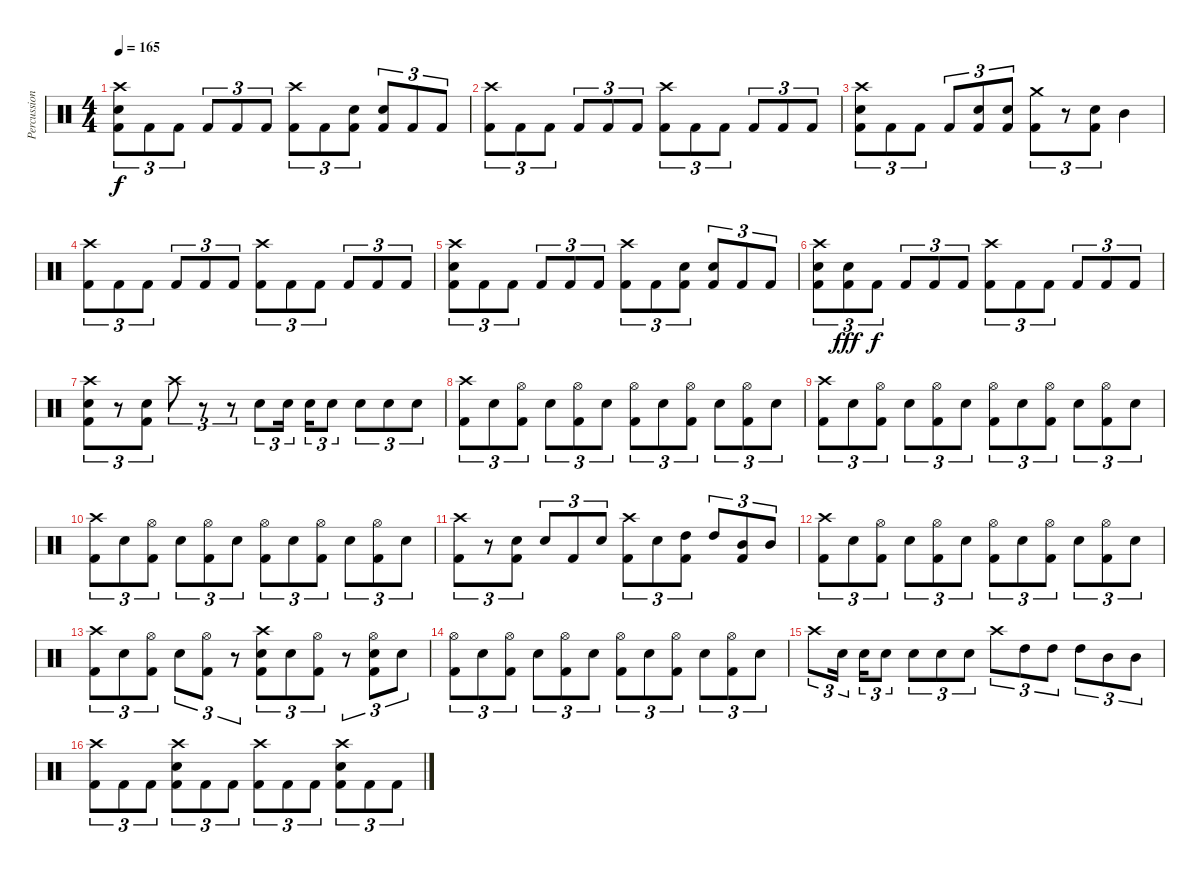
\track ("Percussion" "Percussion") {instrument percussion}
\staff {score}
\articulation defaults
\ts (4 4)
\tempo 165
\clef neutral
\ks c
("Crash high (hit)" "Electric Snare (hit)" "Kick (hit) 2").8{tu (3 2) dy f} "Kick (hit) 2".8{tu (3 2)} "Kick (hit) 2".8{tu (3 2)} "Kick (hit) 2".8{tu (3 2)} "Kick (hit) 2".8{tu (3 2)} "Kick (hit) 2".8{tu (3 2)} ("Crash high (hit)" "Kick (hit) 2").8{tu (3 2)} "Kick (hit) 2".8{tu (3 2)} ("Electric Snare (hit)" "Kick (hit) 2").8{tu (3 2)} ("Electric Snare (hit)" "Kick (hit) 2").8{tu (3 2)} "Kick (hit) 2".8{tu (3 2)} "Kick (hit) 2".8{tu (3 2)} |
("Crash high (hit)" "Kick (hit) 2").8{tu (3 2)} "Kick (hit) 2".8{tu (3 2)} "Kick (hit) 2".8{tu (3 2)} "Kick (hit) 2".8{tu (3 2)} "Kick (hit) 2".8{tu (3 2)} "Kick (hit) 2".8{tu (3 2)} ("Crash high (hit)" "Kick (hit) 2").8{tu (3 2)} "Kick (hit) 2".8{tu (3 2)} "Kick (hit) 2".8{tu (3 2)} "Kick (hit) 2".8{tu (3 2)} "Kick (hit) 2".8{tu (3 2)} "Kick (hit) 2".8{tu (3 2)} |
("Crash high (hit)" "Electric Snare (hit)" "Kick (hit) 2").8{tu (3 2)} "Kick (hit) 2".8{tu (3 2)} "Kick (hit) 2".8{tu (3 2)} "Kick (hit) 2".8{tu (3 2)} ("Electric Snare (hit)" "Kick (hit) 2").8{tu (3 2)} ("Electric Snare (hit)" "Kick (hit) 2").8{tu (3 2)} ("Crash medium (hit)" "Kick (hit) 2").8{tu (3 2)} r.8{tu (3 2)} ("Electric Snare (hit)" "Kick (hit) 2").8{tu (3 2)} "Mid Tom (hit)".4 |
("Crash high (hit)" "Kick (hit) 2").8{tu (3 2)} "Kick (hit) 2".8{tu (3 2)} "Kick (hit) 2".8{tu (3 2)} "Kick (hit) 2".8{tu (3 2)} "Kick (hit) 2".8{tu (3 2)} "Kick (hit) 2".8{tu (3 2)} ("Crash high (hit)" "Kick (hit) 2").8{tu (3 2)} "Kick (hit) 2".8{tu (3 2)} "Kick (hit) 2".8{tu (3 2)} "Kick (hit) 2".8{tu (3 2)} "Kick (hit) 2".8{tu (3 2)} "Kick (hit) 2".8{tu (3 2)} |
("Crash high (hit)" "Electric Snare (hit)" "Kick (hit) 2").8{tu (3 2)} "Kick (hit) 2".8{tu (3 2)} "Kick (hit) 2".8{tu (3 2)} "Kick (hit) 2".8{tu (3 2)} "Kick (hit) 2".8{tu (3 2)} "Kick (hit) 2".8{tu (3 2)} ("Crash high (hit)" "Kick (hit) 2").8{tu (3 2)} "Kick (hit) 2".8{tu (3 2)} ("Electric Snare (hit)" "Kick (hit) 2").8{tu (3 2)} ("Electric Snare (hit)" "Kick (hit) 2").8{tu (3 2)} "Kick (hit) 2".8{tu (3 2)} "Kick (hit) 2".8{tu (3 2)} |
("Crash high (hit)" "Electric Snare (hit)" "Kick (hit) 2").8{tu (3 2)} ("Electric Snare (hit)" "Kick (hit) 2").8{tu (3 2) dy fff} "Kick (hit) 2".8{tu (3 2) dy f} "Kick (hit) 2".8{tu (3 2)} "Kick (hit) 2".8{tu (3 2)} "Kick (hit) 2".8{tu (3 2)} ("Crash high (hit)" "Kick (hit) 2").8{tu (3 2)} "Kick (hit) 2".8{tu (3 2)} "Kick (hit) 2".8{tu (3 2)} "Kick (hit) 2".8{tu (3 2)} "Kick (hit) 2".8{tu (3 2)} "Kick (hit) 2".8{tu (3 2)} |
("Crash high (hit)" "Electric Snare (hit)" "Kick (hit) 2").8{tu (3 2)} r.8{tu (3 2)} ("Electric Snare (hit)" "Kick (hit) 2").8{tu (3 2)} "Crash high (hit)".8{tu (3 2)} r.8{tu (3 2)} r.8{tu (3 2)} "Electric Snare (hit)".8{tu (3 2)} "Electric Snare (hit)".16{tu (3 2) beam splitsecondary} "Electric Snare (hit)".16{tu (3 2)} "Electric Snare (hit)".8{tu (3 2)} "Electric Snare (hit)".8{tu (3 2)} "Electric Snare (hit)".8{tu (3 2)} "Electric Snare (hit)".8{tu (3 2)} |
("Crash high (hit)" "Kick (hit) 2").8{tu (3 2)} "Electric Snare (hit)".8{tu (3 2)} ("Hi-Hat (open)" "Kick (hit) 2").8{tu (3 2)} "Electric Snare (hit)".8{tu (3 2)} ("Hi-Hat (open)" "Kick (hit) 2").8{tu (3 2)} "Electric Snare (hit)".8{tu (3 2)} ("Hi-Hat (open)" "Kick (hit) 2").8{tu (3 2)} "Electric Snare (hit)".8{tu (3 2)} ("Hi-Hat (open)" "Kick (hit) 2").8{tu (3 2)} "Electric Snare (hit)".8{tu (3 2)} ("Hi-Hat (open)" "Kick (hit) 2").8{tu (3 2)} "Electric Snare (hit)".8{tu (3 2)} |
("Crash high (hit)" "Kick (hit) 2").8{tu (3 2)} "Electric Snare (hit)".8{tu (3 2)} ("Hi-Hat (open)" "Kick (hit) 2").8{tu (3 2)} "Electric Snare (hit)".8{tu (3 2)} ("Hi-Hat (open)" "Kick (hit) 2").8{tu (3 2)} "Electric Snare (hit)".8{tu (3 2)} ("Hi-Hat (open)" "Kick (hit) 2").8{tu (3 2)} "Electric Snare (hit)".8{tu (3 2)} ("Hi-Hat (open)" "Kick (hit) 2").8{tu (3 2)} "Electric Snare (hit)".8{tu (3 2)} ("Hi-Hat (open)" "Kick (hit) 2").8{tu (3 2)} "Electric Snare (hit)".8{tu (3 2)} |
("Crash high (hit)" "Kick (hit) 2").8{tu (3 2)} "Electric Snare (hit)".8{tu (3 2)} ("Hi-Hat (open)" "Kick (hit) 2").8{tu (3 2)} "Electric Snare (hit)".8{tu (3 2)} ("Hi-Hat (open)" "Kick (hit) 2").8{tu (3 2)} "Electric Snare (hit)".8{tu (3 2)} ("Hi-Hat (open)" "Kick (hit) 2").8{tu (3 2)} "Electric Snare (hit)".8{tu (3 2)} ("Hi-Hat (open)" "Kick (hit) 2").8{tu (3 2)} "Electric Snare (hit)".8{tu (3 2)} ("Hi-Hat (open)" "Kick (hit) 2").8{tu (3 2)} "Electric Snare (hit)".8{tu (3 2)} |
("Crash high (hit)" "Kick (hit) 2").8{tu (3 2)} r.8{tu (3 2)} ("Electric Snare (hit)" "Kick (hit) 2").8{tu (3 2)} "Electric Snare (hit)".8{tu (3 2)} "Kick (hit) 2".8{tu (3 2)} "Electric Snare (hit)".8{tu (3 2)} ("Crash high (hit)" "Kick (hit) 2").8{tu (3 2)} "Electric Snare (hit)".8{tu (3 2)} ("High Tom (hit)" "Kick (hit) 2").8{tu (3 2)} "High Tom (hit)".8{tu (3 2)} ("Mid Tom (hit)" "Kick (hit) 2").8{tu (3 2)} "Mid Tom (hit)".8{tu (3 2)} |
("Crash high (hit)" "Kick (hit) 2").8{tu (3 2)} "Electric Snare (hit)".8{tu (3 2)} ("Hi-Hat (open)" "Kick (hit) 2").8{tu (3 2)} "Electric Snare (hit)".8{tu (3 2)} ("Hi-Hat (open)" "Kick (hit) 2").8{tu (3 2)} "Electric Snare (hit)".8{tu (3 2)} ("Hi-Hat (open)" "Kick (hit) 2").8{tu (3 2)} "Electric Snare (hit)".8{tu (3 2)} ("Hi-Hat (open)" "Kick (hit) 2").8{tu (3 2)} "Electric Snare (hit)".8{tu (3 2)} ("Hi-Hat (open)" "Kick (hit) 2").8{tu (3 2)} "Electric Snare (hit)".8{tu (3 2)} |
("Crash high (hit)" "Kick (hit) 2").8{tu (3 2)} "Electric Snare (hit)".8{tu (3 2)} ("Hi-Hat (open)" "Kick (hit) 2").8{tu (3 2)} "Electric Snare (hit)".8{tu (3 2)} ("Hi-Hat (open)" "Kick (hit) 2").8{tu (3 2)} r.8{tu (3 2)} ("Crash high (hit)" "Electric Snare (hit)" "Kick (hit) 2").8{tu (3 2)} "Electric Snare (hit)".8{tu (3 2)} ("Hi-Hat (open)" "Kick (hit) 2").8{tu (3 2)} r.8{tu (3 2)} ("Hi-Hat (open)" "Electric Snare (hit)" "Kick (hit) 2").8{tu (3 2)} "Electric Snare (hit)".8{tu (3 2)} |
("Hi-Hat (open)" "Kick (hit) 2").8{tu (3 2)} "Electric Snare (hit)".8{tu (3 2)} ("Hi-Hat (open)" "Kick (hit) 2").8{tu (3 2)} "Electric Snare (hit)".8{tu (3 2)} ("Hi-Hat (open)" "Kick (hit) 2").8{tu (3 2)} "Electric Snare (hit)".8{tu (3 2)} ("Hi-Hat (open)" "Kick (hit) 2").8{tu (3 2)} "Electric Snare (hit)".8{tu (3 2)} ("Hi-Hat (open)" "Kick (hit) 2").8{tu (3 2)} "Electric Snare (hit)".8{tu (3 2)} ("Hi-Hat (open)" "Kick (hit) 2").8{tu (3 2)} "Electric Snare (hit)".8{tu (3 2)} |
"Crash high (hit)".8{tu (3 2)} "Electric Snare (hit)".16{tu (3 2) beam splitsecondary} "Electric Snare (hit)".16{tu (3 2)} "Electric Snare (hit)".8{tu (3 2)} "Electric Snare (hit)".8{tu (3 2)} "Electric Snare (hit)".8{tu (3 2)} "Electric Snare (hit)".8{tu (3 2)} "Crash high (hit)".8{tu (3 2)} "High Tom (hit)".8{tu (3 2)} "High Tom (hit)".8{tu (3 2)} "High Tom (hit)".8{tu (3 2)} "Mid Tom (hit)".8{tu (3 2)} "Mid Tom (hit)".8{tu (3 2)} |
("Crash high (hit)" "Kick (hit) 2").8{tu (3 2)} "Kick (hit) 2".8{tu (3 2)} "Kick (hit) 2".8{tu (3 2)} ("Crash high (hit)" "Electric Snare (hit)" "Kick (hit) 2").8{tu (3 2)} "Kick (hit) 2".8{tu (3 2)} "Kick (hit) 2".8{tu (3 2)} ("Crash high (hit)" "Kick (hit) 2").8{tu (3 2)} "Kick (hit) 2".8{tu (3 2)} "Kick (hit) 2".8{tu (3 2)} ("Crash high (hit)" "Electric Snare (hit)" "Kick (hit) 2").8{tu (3 2)} "Kick (hit) 2".8{tu (3 2)} "Kick (hit) 2".8{tu (3 2)}
